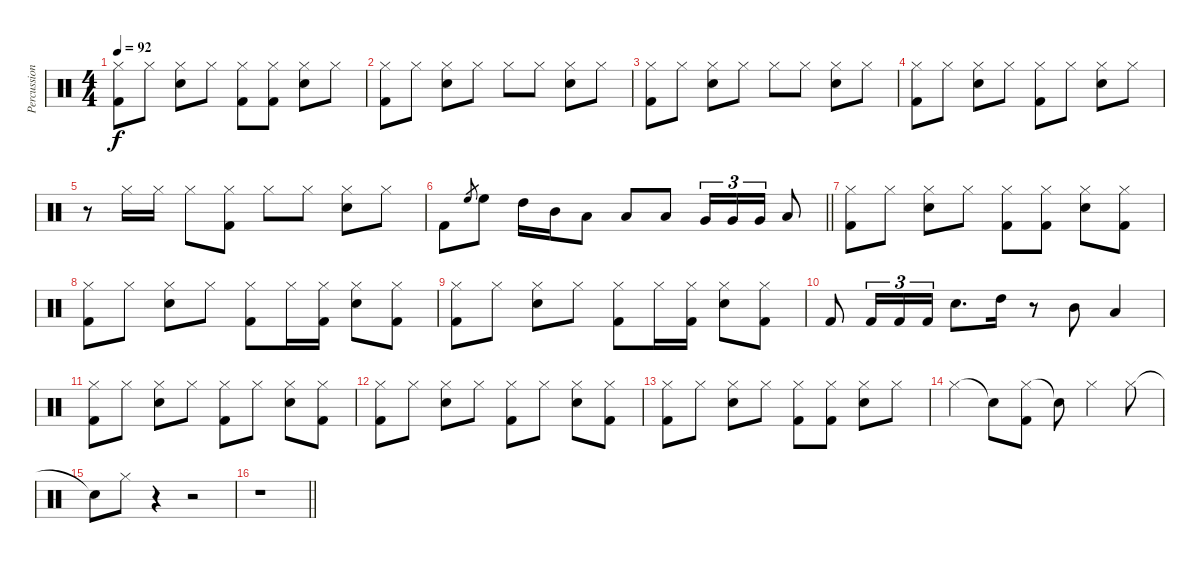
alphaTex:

\track ("Percussion" "Percussion") {instrument percussion}
\staff {score}
\articulation defaults
\ts (4 4)
\tempo 92
\clef neutral
\ks c
("Hi-Hat (closed)" "Kick (hit) 2").8{dy f} "Hi-Hat (closed)".8 ("Hi-Hat (closed)" "Snare (hit) 2").8 "Hi-Hat (closed)".8 ("Hi-Hat (closed)" "Kick (hit) 2").8 ("Hi-Hat (closed)" "Kick (hit) 2").8 ("Hi-Hat (closed)" "Snare (hit) 2").8 "Hi-Hat (closed)".8 |
("Hi-Hat (closed)" "Kick (hit) 2").8 "Hi-Hat (closed)".8 ("Hi-Hat (closed)" "Snare (hit) 2").8 "Hi-Hat (closed)".8 "Hi-Hat (closed)".8 "Hi-Hat (closed)".8 ("Hi-Hat (closed)" "Snare (hit) 2").8 "Hi-Hat (closed)".8 |
("Hi-Hat (closed)" "Kick (hit) 2").8 "Hi-Hat (closed)".8 ("Hi-Hat (closed)" "Snare (hit) 2").8 "Hi-Hat (closed)".8 "Hi-Hat (closed)".8 "Hi-Hat (closed)".8 ("Hi-Hat (closed)" "Snare (hit) 2").8 "Hi-Hat (closed)".8 |
("Hi-Hat (closed)" "Kick (hit) 2").8 "Hi-Hat (closed)".8 ("Hi-Hat (closed)" "Snare (hit) 2").8 "Hi-Hat (closed)".8 ("Hi-Hat (closed)" "Kick (hit) 2").8 "Hi-Hat (closed)".8 ("Hi-Hat (closed)" "Snare (hit) 2").8 "Hi-Hat (closed)".8 |
r.8 "Hi-Hat (closed)".16 "Hi-Hat (closed)".16 "Hi-Hat (closed)".8 ("Hi-Hat (closed)" "Kick (hit) 2").8 "Hi-Hat (closed)".8 "Hi-Hat (closed)".8 ("Hi-Hat (closed)" "Snare (hit) 2").8 "Hi-Hat (closed)".8 |
\barLineRight lightlight "Kick (hit) 2".8 "High Floor Tom (hit)".8{gr} "High Floor Tom (hit)".8 "High Tom (hit)".16 "Mid Tom (hit)".16 "Low Tom (hit)".8 "Low Tom (hit)".8 "Low Tom (hit)".8 "Very Low Tom (hit)".16{tu (3 2)} "Very Low Tom (hit)".16{tu (3 2)} "Very Low Tom (hit)".16{tu (3 2)} "Low Floor Tom (hit)".8
|
("Hi-Hat (closed)" "Kick (hit) 2").8 "Hi-Hat (closed)".8 ("Hi-Hat (closed)" "Snare (hit) 2").8 "Hi-Hat (closed)".8 ("Hi-Hat (closed)" "Kick (hit) 2").8 ("Hi-Hat (closed)" "Kick (hit) 2").8 ("Hi-Hat (closed)" "Snare (hit) 2").8 ("Hi-Hat (closed)" "Kick (hit) 2").8 |
("Hi-Hat (closed)" "Kick (hit) 2").8 "Hi-Hat (closed)".8 ("Hi-Hat (closed)" "Snare (hit) 2").8 "Hi-Hat (closed)".8 ("Hi-Hat (closed)" "Kick (hit) 2").8 "Hi-Hat (closed)".16 ("Hi-Hat (closed)" "Kick (hit) 2").16 ("Hi-Hat (closed)" "Snare (hit) 2").8 ("Hi-Hat (closed)" "Kick (hit) 2").8 |
("Hi-Hat (closed)" "Kick (hit) 2").8 "Hi-Hat (closed)".8 ("Hi-Hat (closed)" "Snare (hit) 2").8 "Hi-Hat (closed)".8 ("Hi-Hat (closed)" "Kick (hit) 2").8 "Hi-Hat (closed)".16 ("Hi-Hat (closed)" "Kick (hit) 2").16 ("Hi-Hat (closed)" "Snare (hit) 2").8 ("Hi-Hat (closed)" "Kick (hit) 2").8 |
"Kick (hit) 2".8 "Kick (hit) 2".16{tu (3 2)} "Kick (hit) 2".16{tu (3 2)} "Kick (hit) 2".16{tu (3 2)} "Snare (hit) 2".8{d} "High Tom (hit)".16 r.8 "Mid Tom (hit)".8 "Low Tom (hit)".4 |
("Hi-Hat (closed)" "Kick (hit) 2").8 "Hi-Hat (closed)".8 ("Hi-Hat (closed)" "Snare (hit) 2").8 "Hi-Hat (closed)".8 ("Hi-Hat (closed)" "Kick (hit) 2").8 "Hi-Hat (closed)".8 ("Hi-Hat (closed)" "Snare (hit) 2").8 ("Hi-Hat (closed)" "Kick (hit) 2").8 |
("Hi-Hat (closed)" "Kick (hit) 2").8 "Hi-Hat (closed)".8 ("Hi-Hat (closed)" "Snare (hit) 2").8 "Hi-Hat (closed)".8 ("Hi-Hat (closed)" "Kick (hit) 2").8 "Hi-Hat (closed)".8 ("Hi-Hat (closed)" "Snare (hit) 2").8 ("Hi-Hat (closed)" "Kick (hit) 2").8 |
("Hi-Hat (closed)" "Kick (hit) 2").8 "Hi-Hat (closed)".8 ("Hi-Hat (closed)" "Snare (hit) 2").8 "Hi-Hat (closed)".8 ("Hi-Hat (closed)" "Kick (hit) 2").8 ("Hi-Hat (closed)" "Kick (hit) 2").8 ("Hi-Hat (closed)" "Snare (hit) 2").8 "Hi-Hat (closed)".8 |
"Hi-Hat (closed)".4 "Snare (hit)"{t}.8 ("Hi-Hat (closed)" "Kick (hit) 2").8 "Snare (hit)"{t}.8 "Hi-Hat (closed)".4 "Hi-Hat (closed)".8 |
"Snare (hit)"{t}.8 "Hi-Hat (closed)".8 r.4 r.2 |
\barLineRight lightlight
r.1
